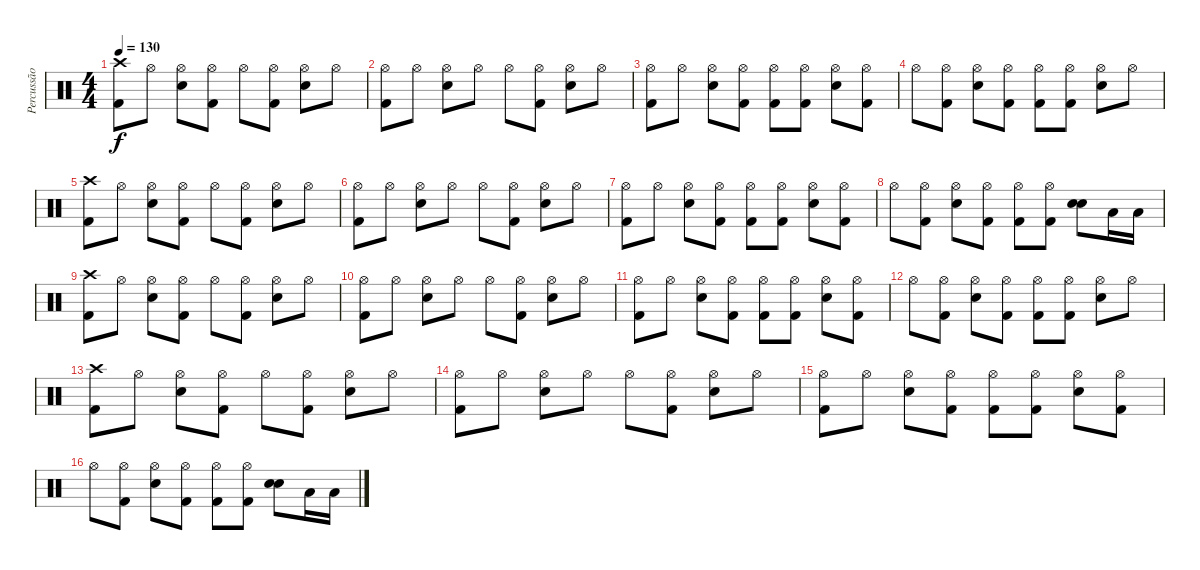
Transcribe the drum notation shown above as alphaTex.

\track ("Percussão" "Percussão") {instrument percussion}
\staff {score}
\articulation defaults
\ts (4 4)
\tempo 130
\clef neutral
\ks c
("Crash high (hit)" "Kick (hit) 2").8{dy f} "Hi-Hat (open)".8 ("Hi-Hat (open)" "Electric Snare (hit)").8 ("Hi-Hat (open)" "Kick (hit) 2").8 "Hi-Hat (open)".8 ("Hi-Hat (open)" "Kick (hit) 2").8 ("Hi-Hat (open)" "Electric Snare (hit)").8 "Hi-Hat (open)".8 |
("Hi-Hat (open)" "Kick (hit) 2").8 "Hi-Hat (open)".8 ("Hi-Hat (open)" "Electric Snare (hit)").8 "Hi-Hat (open)".8 "Hi-Hat (open)".8 ("Hi-Hat (open)" "Kick (hit) 2").8 ("Hi-Hat (open)" "Electric Snare (hit)").8 "Hi-Hat (open)".8 |
("Hi-Hat (open)" "Kick (hit) 2").8 "Hi-Hat (open)".8 ("Hi-Hat (open)" "Electric Snare (hit)").8 ("Hi-Hat (open)" "Kick (hit) 2").8 ("Hi-Hat (open)" "Kick (hit) 2").8 ("Hi-Hat (open)" "Kick (hit) 2").8 ("Hi-Hat (open)" "Electric Snare (hit)").8 ("Hi-Hat (open)" "Kick (hit) 2").8 |
"Hi-Hat (open)".8 ("Hi-Hat (open)" "Kick (hit) 2").8 ("Hi-Hat (open)" "Electric Snare (hit)").8 ("Hi-Hat (open)" "Kick (hit) 2").8 ("Hi-Hat (open)" "Kick (hit) 2").8 ("Hi-Hat (open)" "Kick (hit) 2").8 ("Hi-Hat (open)" "Electric Snare (hit)").8 "Hi-Hat (open)".8 |
("Crash high (hit)" "Kick (hit) 2").8 "Hi-Hat (open)".8 ("Hi-Hat (open)" "Electric Snare (hit)").8 ("Hi-Hat (open)" "Kick (hit) 2").8 "Hi-Hat (open)".8 ("Hi-Hat (open)" "Kick (hit) 2").8 ("Hi-Hat (open)" "Electric Snare (hit)").8 "Hi-Hat (open)".8 |
("Hi-Hat (open)" "Kick (hit) 2").8 "Hi-Hat (open)".8 ("Hi-Hat (open)" "Electric Snare (hit)").8 "Hi-Hat (open)".8 "Hi-Hat (open)".8 ("Hi-Hat (open)" "Kick (hit) 2").8 ("Hi-Hat (open)" "Electric Snare (hit)").8 "Hi-Hat (open)".8 |
("Hi-Hat (open)" "Kick (hit) 2").8 "Hi-Hat (open)".8 ("Hi-Hat (open)" "Electric Snare (hit)").8 ("Hi-Hat (open)" "Kick (hit) 2").8 ("Hi-Hat (open)" "Kick (hit) 2").8 ("Hi-Hat (open)" "Kick (hit) 2").8 ("Hi-Hat (open)" "Electric Snare (hit)").8 ("Hi-Hat (open)" "Kick (hit) 2").8 |
"Hi-Hat (open)".8 ("Hi-Hat (open)" "Kick (hit) 2").8 ("Hi-Hat (open)" "Electric Snare (hit)").8 ("Hi-Hat (open)" "Kick (hit) 2").8 ("Hi-Hat (open)" "Kick (hit) 2").8 ("Hi-Hat (open)" "Kick (hit) 2").8 ("Electric Snare (hit)" "Electric Snare (hit)").8{bd 240} "Low Floor Tom (hit)".16 "Low Floor Tom (hit)".16 |
("Crash high (hit)" "Kick (hit) 2").8 "Hi-Hat (open)".8 ("Hi-Hat (open)" "Electric Snare (hit)").8 ("Hi-Hat (open)" "Kick (hit) 2").8 "Hi-Hat (open)".8 ("Hi-Hat (open)" "Kick (hit) 2").8 ("Hi-Hat (open)" "Electric Snare (hit)").8 "Hi-Hat (open)".8 |
("Hi-Hat (open)" "Kick (hit) 2").8 "Hi-Hat (open)".8 ("Hi-Hat (open)" "Electric Snare (hit)").8 "Hi-Hat (open)".8 "Hi-Hat (open)".8 ("Hi-Hat (open)" "Kick (hit) 2").8 ("Hi-Hat (open)" "Electric Snare (hit)").8 "Hi-Hat (open)".8 |
("Hi-Hat (open)" "Kick (hit) 2").8 "Hi-Hat (open)".8 ("Hi-Hat (open)" "Electric Snare (hit)").8 ("Hi-Hat (open)" "Kick (hit) 2").8 ("Hi-Hat (open)" "Kick (hit) 2").8 ("Hi-Hat (open)" "Kick (hit) 2").8 ("Hi-Hat (open)" "Electric Snare (hit)").8 ("Hi-Hat (open)" "Kick (hit) 2").8 |
"Hi-Hat (open)".8 ("Hi-Hat (open)" "Kick (hit) 2").8 ("Hi-Hat (open)" "Electric Snare (hit)").8 ("Hi-Hat (open)" "Kick (hit) 2").8 ("Hi-Hat (open)" "Kick (hit) 2").8 ("Hi-Hat (open)" "Kick (hit) 2").8 ("Hi-Hat (open)" "Electric Snare (hit)").8 "Hi-Hat (open)".8 |
("Crash high (hit)" "Kick (hit) 2").8 "Hi-Hat (open)".8 ("Hi-Hat (open)" "Electric Snare (hit)").8 ("Hi-Hat (open)" "Kick (hit) 2").8 "Hi-Hat (open)".8 ("Hi-Hat (open)" "Kick (hit) 2").8 ("Hi-Hat (open)" "Electric Snare (hit)").8 "Hi-Hat (open)".8 |
("Hi-Hat (open)" "Kick (hit) 2").8 "Hi-Hat (open)".8 ("Hi-Hat (open)" "Electric Snare (hit)").8 "Hi-Hat (open)".8 "Hi-Hat (open)".8 ("Hi-Hat (open)" "Kick (hit) 2").8 ("Hi-Hat (open)" "Electric Snare (hit)").8 "Hi-Hat (open)".8 |
("Hi-Hat (open)" "Kick (hit) 2").8 "Hi-Hat (open)".8 ("Hi-Hat (open)" "Electric Snare (hit)").8 ("Hi-Hat (open)" "Kick (hit) 2").8 ("Hi-Hat (open)" "Kick (hit) 2").8 ("Hi-Hat (open)" "Kick (hit) 2").8 ("Hi-Hat (open)" "Electric Snare (hit)").8 ("Hi-Hat (open)" "Kick (hit) 2").8 |
"Hi-Hat (open)".8 ("Hi-Hat (open)" "Kick (hit) 2").8 ("Hi-Hat (open)" "Electric Snare (hit)").8 ("Hi-Hat (open)" "Kick (hit) 2").8 ("Hi-Hat (open)" "Kick (hit) 2").8 ("Hi-Hat (open)" "Kick (hit) 2").8 ("Electric Snare (hit)" "Electric Snare (hit)").8{bd 240} "Low Floor Tom (hit)".16 "Low Floor Tom (hit)".16
